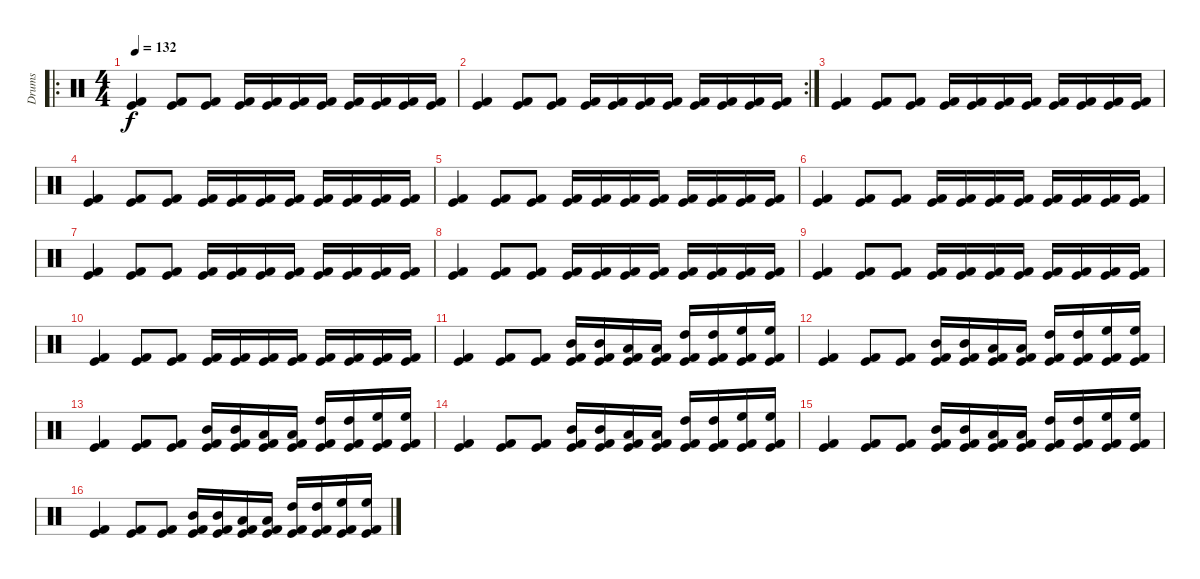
\track ("Drums" "Drums") {instrument percussion}
\staff {score}
\articulation defaults
\ro
\ts (4 4)
\tempo 132
\clef neutral
\ks c
("Kick (hit)" "Kick (hit) 2").4{dy f} ("Kick (hit)" "Kick (hit) 2").8 ("Kick (hit)" "Kick (hit) 2").8 ("Kick (hit)" "Kick (hit) 2").16 ("Kick (hit)" "Kick (hit) 2").16 ("Kick (hit)" "Kick (hit) 2").16 ("Kick (hit)" "Kick (hit) 2").16 ("Kick (hit)" "Kick (hit) 2").16 ("Kick (hit)" "Kick (hit) 2").16 ("Kick (hit)" "Kick (hit) 2").16 ("Kick (hit)" "Kick (hit) 2").16 |
\rc 2
("Kick (hit)" "Kick (hit) 2").4 ("Kick (hit)" "Kick (hit) 2").8 ("Kick (hit)" "Kick (hit) 2").8 ("Kick (hit)" "Kick (hit) 2").16 ("Kick (hit)" "Kick (hit) 2").16 ("Kick (hit)" "Kick (hit) 2").16 ("Kick (hit)" "Kick (hit) 2").16 ("Kick (hit)" "Kick (hit) 2").16 ("Kick (hit)" "Kick (hit) 2").16 ("Kick (hit)" "Kick (hit) 2").16 ("Kick (hit)" "Kick (hit) 2").16 |
("Kick (hit)" "Kick (hit) 2").4 ("Kick (hit)" "Kick (hit) 2").8 ("Kick (hit)" "Kick (hit) 2").8 ("Kick (hit)" "Kick (hit) 2").16 ("Kick (hit)" "Kick (hit) 2").16 ("Kick (hit)" "Kick (hit) 2").16 ("Kick (hit)" "Kick (hit) 2").16 ("Kick (hit)" "Kick (hit) 2").16 ("Kick (hit)" "Kick (hit) 2").16 ("Kick (hit)" "Kick (hit) 2").16 ("Kick (hit)" "Kick (hit) 2").16 |
("Kick (hit)" "Kick (hit) 2").4 ("Kick (hit)" "Kick (hit) 2").8 ("Kick (hit)" "Kick (hit) 2").8 ("Kick (hit)" "Kick (hit) 2").16 ("Kick (hit)" "Kick (hit) 2").16 ("Kick (hit)" "Kick (hit) 2").16 ("Kick (hit)" "Kick (hit) 2").16 ("Kick (hit)" "Kick (hit) 2").16 ("Kick (hit)" "Kick (hit) 2").16 ("Kick (hit)" "Kick (hit) 2").16 ("Kick (hit)" "Kick (hit) 2").16 |
("Kick (hit)" "Kick (hit) 2").4 ("Kick (hit)" "Kick (hit) 2").8 ("Kick (hit)" "Kick (hit) 2").8 ("Kick (hit)" "Kick (hit) 2").16 ("Kick (hit)" "Kick (hit) 2").16 ("Kick (hit)" "Kick (hit) 2").16 ("Kick (hit)" "Kick (hit) 2").16 ("Kick (hit)" "Kick (hit) 2").16 ("Kick (hit)" "Kick (hit) 2").16 ("Kick (hit)" "Kick (hit) 2").16 ("Kick (hit)" "Kick (hit) 2").16 |
("Kick (hit)" "Kick (hit) 2").4 ("Kick (hit)" "Kick (hit) 2").8 ("Kick (hit)" "Kick (hit) 2").8 ("Kick (hit)" "Kick (hit) 2").16 ("Kick (hit)" "Kick (hit) 2").16 ("Kick (hit)" "Kick (hit) 2").16 ("Kick (hit)" "Kick (hit) 2").16 ("Kick (hit)" "Kick (hit) 2").16 ("Kick (hit)" "Kick (hit) 2").16 ("Kick (hit)" "Kick (hit) 2").16 ("Kick (hit)" "Kick (hit) 2").16 |
("Kick (hit)" "Kick (hit) 2").4 ("Kick (hit)" "Kick (hit) 2").8 ("Kick (hit)" "Kick (hit) 2").8 ("Kick (hit)" "Kick (hit) 2").16 ("Kick (hit)" "Kick (hit) 2").16 ("Kick (hit)" "Kick (hit) 2").16 ("Kick (hit)" "Kick (hit) 2").16 ("Kick (hit)" "Kick (hit) 2").16 ("Kick (hit)" "Kick (hit) 2").16 ("Kick (hit)" "Kick (hit) 2").16 ("Kick (hit)" "Kick (hit) 2").16 |
("Kick (hit)" "Kick (hit) 2").4 ("Kick (hit)" "Kick (hit) 2").8 ("Kick (hit)" "Kick (hit) 2").8 ("Kick (hit)" "Kick (hit) 2").16 ("Kick (hit)" "Kick (hit) 2").16 ("Kick (hit)" "Kick (hit) 2").16 ("Kick (hit)" "Kick (hit) 2").16 ("Kick (hit)" "Kick (hit) 2").16 ("Kick (hit)" "Kick (hit) 2").16 ("Kick (hit)" "Kick (hit) 2").16 ("Kick (hit)" "Kick (hit) 2").16 |
("Kick (hit)" "Kick (hit) 2").4 ("Kick (hit)" "Kick (hit) 2").8 ("Kick (hit)" "Kick (hit) 2").8 ("Kick (hit)" "Kick (hit) 2").16 ("Kick (hit)" "Kick (hit) 2").16 ("Kick (hit)" "Kick (hit) 2").16 ("Kick (hit)" "Kick (hit) 2").16 ("Kick (hit)" "Kick (hit) 2").16 ("Kick (hit)" "Kick (hit) 2").16 ("Kick (hit)" "Kick (hit) 2").16 ("Kick (hit)" "Kick (hit) 2").16 |
("Kick (hit)" "Kick (hit) 2").4 ("Kick (hit)" "Kick (hit) 2").8 ("Kick (hit)" "Kick (hit) 2").8 ("Kick (hit)" "Kick (hit) 2").16 ("Kick (hit)" "Kick (hit) 2").16 ("Kick (hit)" "Kick (hit) 2").16 ("Kick (hit)" "Kick (hit) 2").16 ("Kick (hit)" "Kick (hit) 2").16 ("Kick (hit)" "Kick (hit) 2").16 ("Kick (hit)" "Kick (hit) 2").16 ("Kick (hit)" "Kick (hit) 2").16 |
("Kick (hit)" "Kick (hit) 2").4 ("Kick (hit)" "Kick (hit) 2").8 ("Kick (hit)" "Kick (hit) 2").8 ("Kick (hit)" "Kick (hit) 2" "Mid Tom (hit)").16 ("Kick (hit)" "Kick (hit) 2" "Mid Tom (hit)").16 ("Kick (hit)" "Kick (hit) 2" "Low Tom (hit)").16 ("Kick (hit)" "Kick (hit) 2" "Low Tom (hit)").16 ("Kick (hit)" "Kick (hit) 2" "High Tom (hit)").16 ("Kick (hit)" "Kick (hit) 2" "High Tom (hit)").16 ("Kick (hit)" "Kick (hit) 2" "High Floor Tom (hit)").16 ("Kick (hit)" "Kick (hit) 2" "High Floor Tom (hit)").16 |
("Kick (hit)" "Kick (hit) 2").4 ("Kick (hit)" "Kick (hit) 2").8 ("Kick (hit)" "Kick (hit) 2").8 ("Kick (hit)" "Kick (hit) 2" "Mid Tom (hit)").16 ("Kick (hit)" "Kick (hit) 2" "Mid Tom (hit)").16 ("Kick (hit)" "Kick (hit) 2" "Low Tom (hit)").16 ("Kick (hit)" "Kick (hit) 2" "Low Tom (hit)").16 ("Kick (hit)" "Kick (hit) 2" "High Tom (hit)").16 ("Kick (hit)" "Kick (hit) 2" "High Tom (hit)").16 ("Kick (hit)" "Kick (hit) 2" "High Floor Tom (hit)").16 ("Kick (hit)" "Kick (hit) 2" "High Floor Tom (hit)").16 |
("Kick (hit)" "Kick (hit) 2").4 ("Kick (hit)" "Kick (hit) 2").8 ("Kick (hit)" "Kick (hit) 2").8 ("Kick (hit)" "Kick (hit) 2" "Mid Tom (hit)").16 ("Kick (hit)" "Kick (hit) 2" "Mid Tom (hit)").16 ("Kick (hit)" "Kick (hit) 2" "Low Tom (hit)").16 ("Kick (hit)" "Kick (hit) 2" "Low Tom (hit)").16 ("Kick (hit)" "Kick (hit) 2" "High Tom (hit)").16 ("Kick (hit)" "Kick (hit) 2" "High Tom (hit)").16 ("Kick (hit)" "Kick (hit) 2" "High Floor Tom (hit)").16 ("Kick (hit)" "Kick (hit) 2" "High Floor Tom (hit)").16 |
("Kick (hit)" "Kick (hit) 2").4 ("Kick (hit)" "Kick (hit) 2").8 ("Kick (hit)" "Kick (hit) 2").8 ("Kick (hit)" "Kick (hit) 2" "Mid Tom (hit)").16 ("Kick (hit)" "Kick (hit) 2" "Mid Tom (hit)").16 ("Kick (hit)" "Kick (hit) 2" "Low Tom (hit)").16 ("Kick (hit)" "Kick (hit) 2" "Low Tom (hit)").16 ("Kick (hit)" "Kick (hit) 2" "High Tom (hit)").16 ("Kick (hit)" "Kick (hit) 2" "High Tom (hit)").16 ("Kick (hit)" "Kick (hit) 2" "High Floor Tom (hit)").16 ("Kick (hit)" "Kick (hit) 2" "High Floor Tom (hit)").16 |
("Kick (hit)" "Kick (hit) 2").4 ("Kick (hit)" "Kick (hit) 2").8 ("Kick (hit)" "Kick (hit) 2").8 ("Kick (hit)" "Kick (hit) 2" "Mid Tom (hit)").16 ("Kick (hit)" "Kick (hit) 2" "Mid Tom (hit)").16 ("Kick (hit)" "Kick (hit) 2" "Low Tom (hit)").16 ("Kick (hit)" "Kick (hit) 2" "Low Tom (hit)").16 ("Kick (hit)" "Kick (hit) 2" "High Tom (hit)").16 ("Kick (hit)" "Kick (hit) 2" "High Tom (hit)").16 ("Kick (hit)" "Kick (hit) 2" "High Floor Tom (hit)").16 ("Kick (hit)" "Kick (hit) 2" "High Floor Tom (hit)").16 |
("Kick (hit)" "Kick (hit) 2").4 ("Kick (hit)" "Kick (hit) 2").8 ("Kick (hit)" "Kick (hit) 2").8 ("Kick (hit)" "Kick (hit) 2" "Mid Tom (hit)").16 ("Kick (hit)" "Kick (hit) 2" "Mid Tom (hit)").16 ("Kick (hit)" "Kick (hit) 2" "Low Tom (hit)").16 ("Kick (hit)" "Kick (hit) 2" "Low Tom (hit)").16 ("Kick (hit)" "Kick (hit) 2" "High Tom (hit)").16 ("Kick (hit)" "Kick (hit) 2" "High Tom (hit)").16 ("Kick (hit)" "Kick (hit) 2" "High Floor Tom (hit)").16 ("Kick (hit)" "Kick (hit) 2" "High Floor Tom (hit)").16
